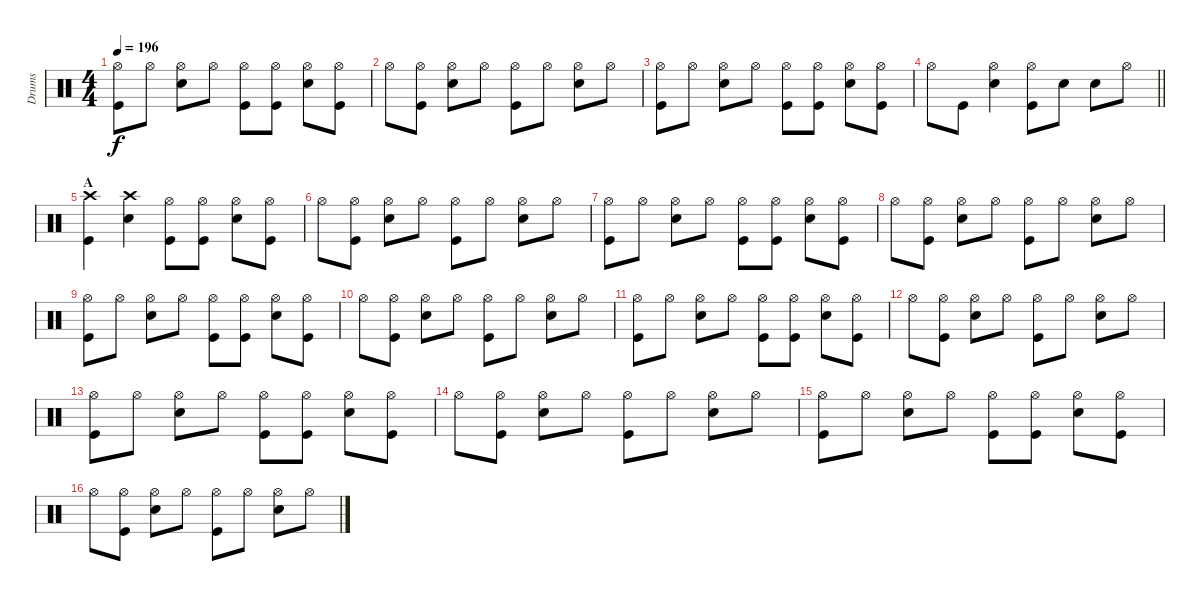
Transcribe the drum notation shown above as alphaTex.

\track ("Drums" "Drums") {instrument percussion}
\staff {score}
\articulation defaults
\ts (4 4)
\tempo 196
\clef neutral
\ks c
("Hi-Hat (open)" "Kick (hit)").8{dy f} "Hi-Hat (open)".8 ("Hi-Hat (open)" "Electric Snare (hit)").8 "Hi-Hat (open)".8 ("Hi-Hat (open)" "Kick (hit)").8 ("Hi-Hat (open)" "Kick (hit)").8 ("Hi-Hat (open)" "Electric Snare (hit)").8 ("Hi-Hat (open)" "Kick (hit)").8 |
"Hi-Hat (open)".8 ("Hi-Hat (open)" "Kick (hit)").8 ("Hi-Hat (open)" "Electric Snare (hit)").8 "Hi-Hat (open)".8 ("Hi-Hat (open)" "Kick (hit)").8 "Hi-Hat (open)".8 ("Hi-Hat (open)" "Electric Snare (hit)").8 "Hi-Hat (open)".8 |
("Hi-Hat (open)" "Kick (hit)").8 "Hi-Hat (open)".8 ("Hi-Hat (open)" "Electric Snare (hit)").8 "Hi-Hat (open)".8 ("Hi-Hat (open)" "Kick (hit)").8 ("Hi-Hat (open)" "Kick (hit)").8 ("Hi-Hat (open)" "Electric Snare (hit)").8 ("Hi-Hat (open)" "Kick (hit)").8 |
\barLineRight lightlight "Hi-Hat (open)".8 "Kick (hit)".8
("Hi-Hat (open)" "Electric Snare (hit)").4 ("Hi-Hat (open)" "Kick (hit)").8 "Electric Snare (hit)".8 "Electric Snare (hit)".8 "Hi-Hat (open)".8 |
\section ("" "A")
("Crash high (hit)" "Kick (hit)").4 ("Crash high (hit)" "Electric Snare (hit)").4 ("Hi-Hat (open)" "Kick (hit)").8 ("Hi-Hat (open)" "Kick (hit)").8 ("Hi-Hat (open)" "Electric Snare (hit)").8 ("Hi-Hat (open)" "Kick (hit)").8 |
"Hi-Hat (open)".8 ("Hi-Hat (open)" "Kick (hit)").8 ("Hi-Hat (open)" "Electric Snare (hit)").8 "Hi-Hat (open)".8 ("Hi-Hat (open)" "Kick (hit)").8 "Hi-Hat (open)".8 ("Hi-Hat (open)" "Electric Snare (hit)").8 "Hi-Hat (open)".8 |
("Hi-Hat (open)" "Kick (hit)").8 "Hi-Hat (open)".8 ("Hi-Hat (open)" "Electric Snare (hit)").8 "Hi-Hat (open)".8 ("Hi-Hat (open)" "Kick (hit)").8 ("Hi-Hat (open)" "Kick (hit)").8 ("Hi-Hat (open)" "Electric Snare (hit)").8 ("Hi-Hat (open)" "Kick (hit)").8 |
"Hi-Hat (open)".8 ("Hi-Hat (open)" "Kick (hit)").8 ("Hi-Hat (open)" "Electric Snare (hit)").8 "Hi-Hat (open)".8 ("Hi-Hat (open)" "Kick (hit)").8 "Hi-Hat (open)".8 ("Hi-Hat (open)" "Electric Snare (hit)").8 "Hi-Hat (open)".8 |
("Hi-Hat (open)" "Kick (hit)").8 "Hi-Hat (open)".8 ("Hi-Hat (open)" "Electric Snare (hit)").8 "Hi-Hat (open)".8 ("Hi-Hat (open)" "Kick (hit)").8 ("Hi-Hat (open)" "Kick (hit)").8 ("Hi-Hat (open)" "Electric Snare (hit)").8 ("Hi-Hat (open)" "Kick (hit)").8 |
"Hi-Hat (open)".8 ("Hi-Hat (open)" "Kick (hit)").8 ("Hi-Hat (open)" "Electric Snare (hit)").8 "Hi-Hat (open)".8 ("Hi-Hat (open)" "Kick (hit)").8 "Hi-Hat (open)".8 ("Hi-Hat (open)" "Electric Snare (hit)").8 "Hi-Hat (open)".8 |
("Hi-Hat (open)" "Kick (hit)").8 "Hi-Hat (open)".8 ("Hi-Hat (open)" "Electric Snare (hit)").8 "Hi-Hat (open)".8 ("Hi-Hat (open)" "Kick (hit)").8 ("Hi-Hat (open)" "Kick (hit)").8 ("Hi-Hat (open)" "Electric Snare (hit)").8 ("Hi-Hat (open)" "Kick (hit)").8 |
"Hi-Hat (open)".8 ("Hi-Hat (open)" "Kick (hit)").8 ("Hi-Hat (open)" "Electric Snare (hit)").8 "Hi-Hat (open)".8 ("Hi-Hat (open)" "Kick (hit)").8 "Hi-Hat (open)".8 ("Hi-Hat (open)" "Electric Snare (hit)").8 "Hi-Hat (open)".8 |
("Hi-Hat (open)" "Kick (hit)").8 "Hi-Hat (open)".8 ("Hi-Hat (open)" "Electric Snare (hit)").8 "Hi-Hat (open)".8 ("Hi-Hat (open)" "Kick (hit)").8 ("Hi-Hat (open)" "Kick (hit)").8 ("Hi-Hat (open)" "Electric Snare (hit)").8 ("Hi-Hat (open)" "Kick (hit)").8 |
"Hi-Hat (open)".8 ("Hi-Hat (open)" "Kick (hit)").8 ("Hi-Hat (open)" "Electric Snare (hit)").8 "Hi-Hat (open)".8 ("Hi-Hat (open)" "Kick (hit)").8 "Hi-Hat (open)".8 ("Hi-Hat (open)" "Electric Snare (hit)").8 "Hi-Hat (open)".8 |
("Hi-Hat (open)" "Kick (hit)").8 "Hi-Hat (open)".8 ("Hi-Hat (open)" "Electric Snare (hit)").8 "Hi-Hat (open)".8 ("Hi-Hat (open)" "Kick (hit)").8 ("Hi-Hat (open)" "Kick (hit)").8 ("Hi-Hat (open)" "Electric Snare (hit)").8 ("Hi-Hat (open)" "Kick (hit)").8 |
"Hi-Hat (open)".8 ("Hi-Hat (open)" "Kick (hit)").8 ("Hi-Hat (open)" "Electric Snare (hit)").8 "Hi-Hat (open)".8 ("Hi-Hat (open)" "Kick (hit)").8 "Hi-Hat (open)".8 ("Hi-Hat (open)" "Electric Snare (hit)").8 "Hi-Hat (open)".8
